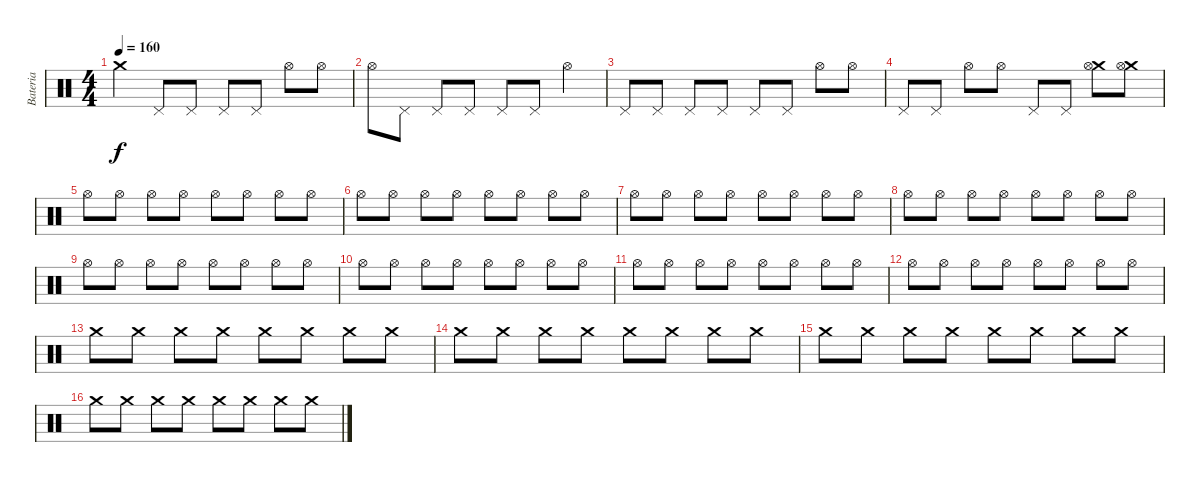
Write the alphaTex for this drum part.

\track ("Bateria" "Bateria") {instrument percussion}
\staff {score}
\articulation defaults
\ts (4 4)
\tempo 160
\clef neutral
\ks c "Crash medium (hit)".4{dy f} "Pedal Hi-Hat (hit)".8 "Pedal Hi-Hat (hit)".8 "Pedal Hi-Hat (hit)".8 "Pedal Hi-Hat (hit)".8 "Hi-Hat (open)".8 "Hi-Hat (open)".8
|
"Hi-Hat (open)".8 "Pedal Hi-Hat (hit)".8 "Pedal Hi-Hat (hit)".8 "Pedal Hi-Hat (hit)".8 "Pedal Hi-Hat (hit)".8 "Pedal Hi-Hat (hit)".8 "Hi-Hat (open)".4 |
"Pedal Hi-Hat (hit)".8 "Pedal Hi-Hat (hit)".8 "Pedal Hi-Hat (hit)".8 "Pedal Hi-Hat (hit)".8 "Pedal Hi-Hat (hit)".8 "Pedal Hi-Hat (hit)".8 "Hi-Hat (open)".8 "Hi-Hat (open)".8 |
"Pedal Hi-Hat (hit)".8 "Pedal Hi-Hat (hit)".8 "Hi-Hat (open)".8 "Hi-Hat (open)".8 "Pedal Hi-Hat (hit)".8 "Pedal Hi-Hat (hit)".8 ("Crash medium (hit)" "Hi-Hat (open)").8 ("Crash medium (hit)" "Hi-Hat (open)").8 |
"Hi-Hat (open)".8 "Hi-Hat (open)".8 "Hi-Hat (open)".8 "Hi-Hat (open)".8 "Hi-Hat (open)".8 "Hi-Hat (open)".8 "Hi-Hat (open)".8 "Hi-Hat (open)".8 |
"Hi-Hat (open)".8 "Hi-Hat (open)".8 "Hi-Hat (open)".8 "Hi-Hat (open)".8 "Hi-Hat (open)".8 "Hi-Hat (open)".8 "Hi-Hat (open)".8 "Hi-Hat (open)".8 |
"Hi-Hat (open)".8 "Hi-Hat (open)".8 "Hi-Hat (open)".8 "Hi-Hat (open)".8 "Hi-Hat (open)".8 "Hi-Hat (open)".8 "Hi-Hat (open)".8 "Hi-Hat (open)".8 |
"Hi-Hat (open)".8 "Hi-Hat (open)".8 "Hi-Hat (open)".8 "Hi-Hat (open)".8 "Hi-Hat (open)".8 "Hi-Hat (open)".8 "Hi-Hat (open)".8 "Hi-Hat (open)".8 |
"Hi-Hat (open)".8 "Hi-Hat (open)".8 "Hi-Hat (open)".8 "Hi-Hat (open)".8 "Hi-Hat (open)".8 "Hi-Hat (open)".8 "Hi-Hat (open)".8 "Hi-Hat (open)".8 |
"Hi-Hat (open)".8 "Hi-Hat (open)".8 "Hi-Hat (open)".8 "Hi-Hat (open)".8 "Hi-Hat (open)".8 "Hi-Hat (open)".8 "Hi-Hat (open)".8 "Hi-Hat (open)".8 |
"Hi-Hat (open)".8 "Hi-Hat (open)".8 "Hi-Hat (open)".8 "Hi-Hat (open)".8 "Hi-Hat (open)".8 "Hi-Hat (open)".8 "Hi-Hat (open)".8 "Hi-Hat (open)".8 |
"Hi-Hat (open)".8 "Hi-Hat (open)".8 "Hi-Hat (open)".8 "Hi-Hat (open)".8 "Hi-Hat (open)".8 "Hi-Hat (open)".8 "Hi-Hat (open)".8 "Hi-Hat (open)".8 |
"Crash medium (hit)".8 "Crash medium (hit)".8 "Crash medium (hit)".8 "Crash medium (hit)".8 "Crash medium (hit)".8 "Crash medium (hit)".8 "Crash medium (hit)".8 "Crash medium (hit)".8 |
"Crash medium (hit)".8 "Crash medium (hit)".8 "Crash medium (hit)".8 "Crash medium (hit)".8 "Crash medium (hit)".8 "Crash medium (hit)".8 "Crash medium (hit)".8 "Crash medium (hit)".8 |
"Crash medium (hit)".8 "Crash medium (hit)".8 "Crash medium (hit)".8 "Crash medium (hit)".8 "Crash medium (hit)".8 "Crash medium (hit)".8 "Crash medium (hit)".8 "Crash medium (hit)".8 |
"Crash medium (hit)".8 "Crash medium (hit)".8 "Crash medium (hit)".8 "Crash medium (hit)".8 "Crash medium (hit)".8 "Crash medium (hit)".8 "Crash medium (hit)".8 "Crash medium (hit)".8
